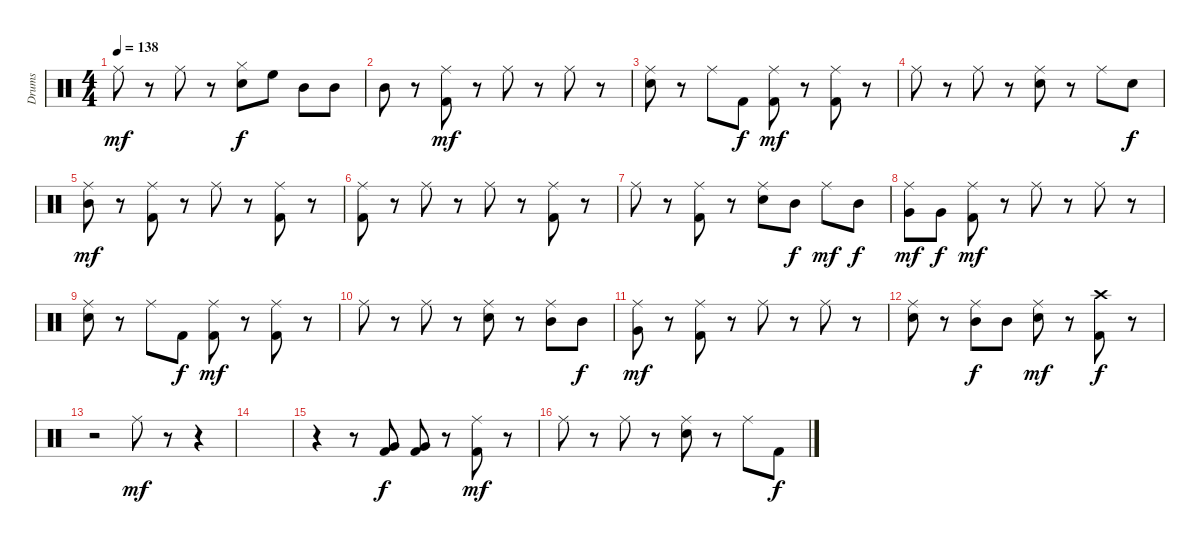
\track ("Drums" "Drums") {instrument percussion}
\staff {score}
\articulation defaults
\ts (4 4)
\tempo 138
\clef neutral
\ks c "Ride (middle)".8{dy mf}
r.8 "Ride (middle)".8 r.8 ("Hi-Hat (closed)" "Snare (hit) 2").8{dy f} "High Floor Tom (hit)".8 "Mid Tom (hit)".8 "Mid Tom (hit)".8 |
"Mid Tom (hit)".8 r.8 ("Ride (middle)" "Kick (hit) 2").8{dy mf} r.8 "Ride (middle)".8 r.8 "Ride (middle)".8 r.8 |
("Ride (middle)" "Snare (hit) 2").8 r.8 "Ride (middle)".8 "Kick (hit) 2".8{dy f} ("Ride (middle)" "Kick (hit) 2").8{dy mf} r.8 ("Ride (middle)" "Kick (hit) 2").8 r.8 |
"Ride (middle)".8 r.8 "Ride (middle)".8 r.8 ("Ride (middle)" "Snare (hit) 2").8 r.8 "Ride (middle)".8 "Snare (hit) 2".8{dy f} |
("Ride (middle)" "Mid Tom (hit)").8{dy mf} r.8 ("Ride (middle)" "Kick (hit) 2").8 r.8 "Ride (middle)".8 r.8 ("Ride (middle)" "Kick (hit) 2").8 r.8 |
("Ride (middle)" "Kick (hit) 2").8 r.8 "Ride (middle)".8 r.8 "Ride (middle)".8 r.8 ("Ride (middle)" "Kick (hit) 2").8 r.8 |
"Ride (middle)".8 r.8 ("Ride (middle)" "Kick (hit) 2").8 r.8 ("Ride (middle)" "Snare (hit) 2").8 "Mid Tom (hit)".8{dy f} "Ride (middle)".8{dy mf} "Mid Tom (hit)".8{dy f} |
("Ride (middle)" "Very Low Tom (hit)").8{dy mf} "Very Low Tom (hit)".8{dy f} ("Ride (middle)" "Kick (hit) 2").8{dy mf} r.8 "Ride (middle)".8 r.8 "Ride (middle)".8 r.8 |
("Ride (middle)" "Snare (hit) 2").8 r.8 "Ride (middle)".8 "Kick (hit) 2".8{dy f} ("Ride (middle)" "Kick (hit) 2").8{dy mf} r.8 ("Ride (middle)" "Kick (hit) 2").8 r.8 |
"Ride (middle)".8 r.8 "Ride (middle)".8 r.8 ("Ride (middle)" "Snare (hit) 2").8 r.8 ("Ride (middle)" "Mid Tom (hit)").8 "Mid Tom (hit)".8{dy f} |
("Ride (middle)" "Very Low Tom (hit)").8{dy mf} r.8 ("Ride (middle)" "Kick (hit) 2").8 r.8 "Ride (middle)".8 r.8 "Ride (middle)".8 r.8 |
("Ride (middle)" "Snare (hit) 2").8 r.8 ("Ride (middle)" "Mid Tom (hit)").8{dy f} "Mid Tom (hit)".8 ("Ride (middle)" "Snare (hit) 2").8{dy mf} r.8 ("Crash high (hit)" "Kick (hit) 2").8{dy f} r.8 |
r.2 "Ride (middle)".8{dy mf} r.8 r.4 |
|
r.4 r.8 ("Very Low Tom (hit)" "Kick (hit) 2").8{dy f} ("Very Low Tom (hit)" "Kick (hit) 2").8 r.8 ("Ride (middle)" "Kick (hit) 2").8{dy mf} r.8 |
"Ride (middle)".8 r.8 "Ride (middle)".8 r.8 ("Ride (middle)" "Snare (hit) 2").8 r.8 "Ride (middle)".8 "Kick (hit) 2".8{dy f}
